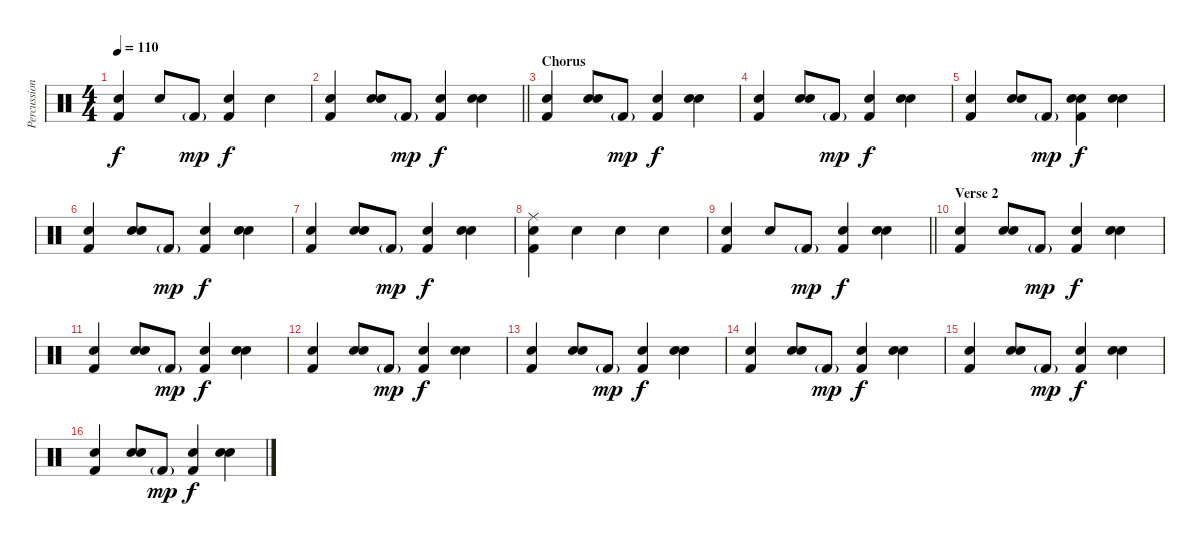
\track ("Percussion" "Percussion") {instrument percussion}
\staff {score}
\articulation defaults
\ts (4 4)
\tempo 110
\clef neutral
\ks c
("Hand Clap (hit)" "Kick (hit) 2").4{dy f} "Hand Clap (hit)".8 "Kick (hit) 2"{g}.8{dy mp} ("Hand Clap (hit)" "Kick (hit) 2").4{dy f} "Hand Clap (hit)".4 |
\barLineRight lightlight
("Hand Clap (hit)" "Kick (hit) 2").4 ("Snare (hit) 2" "Hand Clap (hit)").8 "Kick (hit) 2"{g}.8{dy mp} ("Hand Clap (hit)" "Kick (hit) 2").4{dy f} ("Snare (hit) 2" "Hand Clap (hit)").4 |
\section ("" "Chorus")
("Hand Clap (hit)" "Kick (hit) 2").4 ("Snare (hit) 2" "Hand Clap (hit)").8 "Kick (hit) 2"{g}.8{dy mp} ("Hand Clap (hit)" "Kick (hit) 2").4{dy f} ("Snare (hit) 2" "Hand Clap (hit)").4 |
("Hand Clap (hit)" "Kick (hit) 2").4 ("Snare (hit) 2" "Hand Clap (hit)").8 "Kick (hit) 2"{g}.8{dy mp} ("Hand Clap (hit)" "Kick (hit) 2").4{dy f} ("Snare (hit) 2" "Hand Clap (hit)").4 |
("Hand Clap (hit)" "Kick (hit) 2").4 ("Snare (hit) 2" "Hand Clap (hit)").8 "Kick (hit) 2"{g}.8{dy mp} ("Snare (hit) 2" "Hand Clap (hit)" "Kick (hit) 2").4{dy f} ("Snare (hit) 2" "Hand Clap (hit)").4 |
("Hand Clap (hit)" "Kick (hit) 2").4 ("Snare (hit) 2" "Hand Clap (hit)").8 "Kick (hit) 2"{g}.8{dy mp} ("Hand Clap (hit)" "Kick (hit) 2").4{dy f} ("Snare (hit) 2" "Hand Clap (hit)").4 |
("Hand Clap (hit)" "Kick (hit) 2").4 ("Snare (hit) 2" "Hand Clap (hit)").8 "Kick (hit) 2"{g}.8{dy mp} ("Hand Clap (hit)" "Kick (hit) 2").4{dy f} ("Snare (hit) 2" "Hand Clap (hit)").4 |
("Ride (middle)" "Hand Clap (hit)" "Kick (hit) 2").4 "Hand Clap (hit)".4 "Hand Clap (hit)".4 "Hand Clap (hit)".4 |
\barLineRight lightlight
("Hand Clap (hit)" "Kick (hit) 2").4 "Hand Clap (hit)".8 "Kick (hit) 2"{g}.8{dy mp} ("Hand Clap (hit)" "Kick (hit) 2").4{dy f} ("Snare (hit) 2" "Hand Clap (hit)").4 |
\section ("" "Verse 2")
("Hand Clap (hit)" "Kick (hit) 2").4 ("Snare (hit) 2" "Hand Clap (hit)").8 "Kick (hit) 2"{g}.8{dy mp} ("Hand Clap (hit)" "Kick (hit) 2").4{dy f} ("Snare (hit) 2" "Hand Clap (hit)").4 |
("Hand Clap (hit)" "Kick (hit) 2").4 ("Snare (hit) 2" "Hand Clap (hit)").8 "Kick (hit) 2"{g}.8{dy mp} ("Hand Clap (hit)" "Kick (hit) 2").4{dy f} ("Snare (hit) 2" "Hand Clap (hit)").4 |
("Hand Clap (hit)" "Kick (hit) 2").4 ("Snare (hit) 2" "Hand Clap (hit)").8 "Kick (hit) 2"{g}.8{dy mp} ("Hand Clap (hit)" "Kick (hit) 2").4{dy f} ("Snare (hit) 2" "Hand Clap (hit)").4 |
("Hand Clap (hit)" "Kick (hit) 2").4 ("Snare (hit) 2" "Hand Clap (hit)").8 "Kick (hit) 2"{g}.8{dy mp} ("Hand Clap (hit)" "Kick (hit) 2").4{dy f} ("Snare (hit) 2" "Hand Clap (hit)").4 |
("Hand Clap (hit)" "Kick (hit) 2").4 ("Snare (hit) 2" "Hand Clap (hit)").8 "Kick (hit) 2"{g}.8{dy mp} ("Hand Clap (hit)" "Kick (hit) 2").4{dy f} ("Snare (hit) 2" "Hand Clap (hit)").4 |
("Hand Clap (hit)" "Kick (hit) 2").4 ("Snare (hit) 2" "Hand Clap (hit)").8 "Kick (hit) 2"{g}.8{dy mp} ("Hand Clap (hit)" "Kick (hit) 2").4{dy f} ("Snare (hit) 2" "Hand Clap (hit)").4 |
("Hand Clap (hit)" "Kick (hit) 2").4 ("Snare (hit) 2" "Hand Clap (hit)").8 "Kick (hit) 2"{g}.8{dy mp} ("Hand Clap (hit)" "Kick (hit) 2").4{dy f} ("Snare (hit) 2" "Hand Clap (hit)").4
